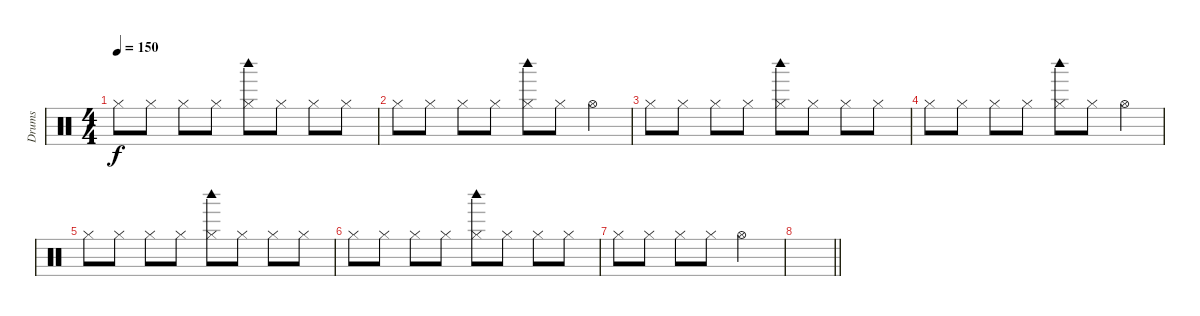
\track ("Drums" "Drums") {instrument percussion}
\staff {score}
\articulation defaults
\ts (4 4)
\tempo 150
\clef neutral
\ks c "Hi-Hat (closed)".8{dy f} "Hi-Hat (closed)".8 "Hi-Hat (closed)".8 "Hi-Hat (closed)".8
("Hi-Hat (closed)" "Woodblock high (hit)").8 "Hi-Hat (closed)".8 "Hi-Hat (closed)".8 "Hi-Hat (closed)".8 |
"Hi-Hat (closed)".8 "Hi-Hat (closed)".8 "Hi-Hat (closed)".8 "Hi-Hat (closed)".8 ("Hi-Hat (closed)" "Woodblock high (hit)").8 "Hi-Hat (closed)".8 "Hi-Hat (open)".4 |
"Hi-Hat (closed)".8 "Hi-Hat (closed)".8 "Hi-Hat (closed)".8 "Hi-Hat (closed)".8 ("Hi-Hat (closed)" "Woodblock high (hit)").8 "Hi-Hat (closed)".8 "Hi-Hat (closed)".8 "Hi-Hat (closed)".8 |
"Hi-Hat (closed)".8 "Hi-Hat (closed)".8 "Hi-Hat (closed)".8 "Hi-Hat (closed)".8 ("Hi-Hat (closed)" "Woodblock high (hit)").8 "Hi-Hat (closed)".8 "Hi-Hat (open)".4 |
"Hi-Hat (closed)".8 "Hi-Hat (closed)".8 "Hi-Hat (closed)".8 "Hi-Hat (closed)".8 ("Hi-Hat (closed)" "Woodblock high (hit)").8 "Hi-Hat (closed)".8 "Hi-Hat (closed)".8 "Hi-Hat (closed)".8 |
"Hi-Hat (closed)".8 "Hi-Hat (closed)".8 "Hi-Hat (closed)".8 "Hi-Hat (closed)".8 ("Hi-Hat (closed)" "Woodblock high (hit)").8 "Hi-Hat (closed)".8 "Hi-Hat (closed)".8 "Hi-Hat (closed)".8 |
"Hi-Hat (closed)".8 "Hi-Hat (closed)".8 "Hi-Hat (closed)".8 "Hi-Hat (closed)".8 "Hi-Hat (open)".2 |
\barLineRight lightlight
